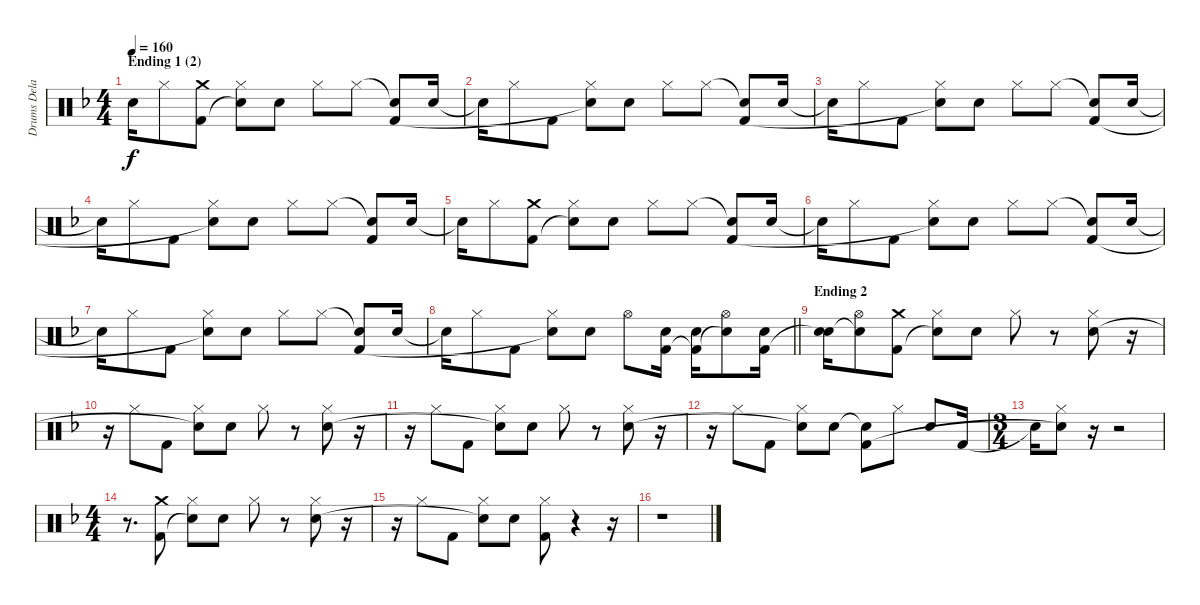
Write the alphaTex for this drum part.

\track ("Drums Delay 2" "Drums Dela") {instrument percussion}
\staff {score}
\articulation defaults
\ts (4 4)
\section ("" "Ending 1 (2)")
\tempo 160
\clef neutral
\ks f "Electric Snare (hit)"{t}.16{dy f} "Hi-Hat (closed)".8
("Crash medium (hit)" "Kick (hit) 2").8 ("Hi-Hat (closed)" "Snare (hit)"{t}).8 "Electric Snare (hit)".8 "Hi-Hat (closed)".8 "Hi-Hat (closed)".8 ("Snare (hit)"{t} "Kick (hit) 2").8 "Electric Snare (hit)".16 |
"Electric Snare (hit)"{t}.16 "Hi-Hat (closed)".8 "Kick (hit) 2".8 ("Hi-Hat (closed)" "Snare (hit)"{t}).8 "Electric Snare (hit)".8 "Hi-Hat (closed)".8 "Hi-Hat (closed)".8 ("Snare (hit)"{t} "Kick (hit) 2").8 "Electric Snare (hit)".16 |
"Electric Snare (hit)"{t}.16 "Hi-Hat (closed)".8 "Kick (hit) 2".8 ("Hi-Hat (closed)" "Snare (hit)"{t}).8 "Electric Snare (hit)".8 "Hi-Hat (closed)".8 "Hi-Hat (closed)".8 ("Snare (hit)"{t} "Kick (hit) 2").8 "Electric Snare (hit)".16 |
"Electric Snare (hit)"{t}.16 "Hi-Hat (closed)".8 "Kick (hit) 2".8 ("Hi-Hat (closed)" "Snare (hit)"{t}).8 "Electric Snare (hit)".8 "Hi-Hat (closed)".8 "Hi-Hat (closed)".8 ("Snare (hit)"{t} "Kick (hit) 2").8 "Electric Snare (hit)".16 |
"Electric Snare (hit)"{t}.16 "Hi-Hat (closed)".8 ("Crash medium (hit)" "Kick (hit) 2").8 ("Hi-Hat (closed)" "Snare (hit)"{t}).8 "Electric Snare (hit)".8 "Hi-Hat (closed)".8 "Hi-Hat (closed)".8 ("Snare (hit)"{t} "Kick (hit) 2").8 "Electric Snare (hit)".16 |
"Electric Snare (hit)"{t}.16 "Hi-Hat (closed)".8 "Kick (hit) 2".8 ("Hi-Hat (closed)" "Snare (hit)"{t}).8 "Electric Snare (hit)".8 "Hi-Hat (closed)".8 "Hi-Hat (closed)".8 ("Snare (hit)"{t} "Kick (hit) 2").8 "Electric Snare (hit)".16 |
"Electric Snare (hit)"{t}.16 "Hi-Hat (closed)".8 "Kick (hit) 2".8 ("Hi-Hat (closed)" "Snare (hit)"{t}).8 "Electric Snare (hit)".8 "Hi-Hat (closed)".8 "Hi-Hat (closed)".8 ("Snare (hit)"{t} "Kick (hit) 2").8 "Electric Snare (hit)".16 |
\barLineRight lightlight "Snare (hit)"{t}.16 "Hi-Hat (closed)".8 "Kick (hit) 2".8
("Hi-Hat (closed)" "Snare (hit)"{t}).8 "Electric Snare (hit)".8 "Hi-Hat (open)".8 ("Electric Snare (hit)" "Kick (hit) 2").16 ("Electric Snare (hit)" "Kick (hit) 2"{t}).16 ("Hi-Hat (open)" "Snare (hit)"{t}).8 ("Electric Snare (hit)" "Kick (hit) 2").16 |
\section ("" "Ending 2")
("Electric Snare (hit)" "Snare (hit)"{t}).16 ("Hi-Hat (open)" "Snare (hit)"{t}).8 ("Crash medium (hit)" "Kick (hit) 2").8 ("Hi-Hat (closed)" "Snare (hit)"{t}).8 "Electric Snare (hit)".8 "Hi-Hat (closed)".8 r.8 ("Hi-Hat (closed)" "Electric Snare (hit)").8 r.16 |
r.16 "Hi-Hat (closed)".8 "Kick (hit) 2".8 ("Hi-Hat (closed)" "Snare (hit)"{t}).8 "Electric Snare (hit)".8 "Hi-Hat (closed)".8 r.8 ("Hi-Hat (closed)" "Electric Snare (hit)").8 r.16 |
r.16 "Hi-Hat (closed)".8 "Kick (hit) 2".8 ("Hi-Hat (closed)" "Snare (hit)"{t}).8 "Electric Snare (hit)".8 "Hi-Hat (closed)".8 r.8 ("Hi-Hat (closed)" "Electric Snare (hit)").8 r.16 |
r.16 "Hi-Hat (closed)".8 "Kick (hit) 2".8 ("Hi-Hat (closed)" "Snare (hit)"{t}).8 "Electric Snare (hit)".8 ("Snare (hit)"{t} "Kick (hit) 2").8 "Hi-Hat (closed)".8 "Electric Snare (hit)".8 "Kick (hit) 2".16 |
\ts (3 4)
"Snare (hit)"{t}.16 ("Hi-Hat (closed)" "Snare (hit)"{t}).8 r.16 r.2 |
\ts (4 4)
r.8{d} ("Crash medium (hit)" "Kick (hit) 2").8 ("Hi-Hat (closed)" "Snare (hit)"{t}).8 "Electric Snare (hit)".8 "Hi-Hat (closed)".8 r.8 ("Hi-Hat (closed)" "Electric Snare (hit)").8 r.16 |
r.16 "Hi-Hat (closed)".8 "Kick (hit) 2".8 ("Hi-Hat (closed)" "Snare (hit)"{t}).8 "Electric Snare (hit)".8 ("Hi-Hat (closed)" "Kick (hit) 2").8 r.4 r.16 |
r.1
